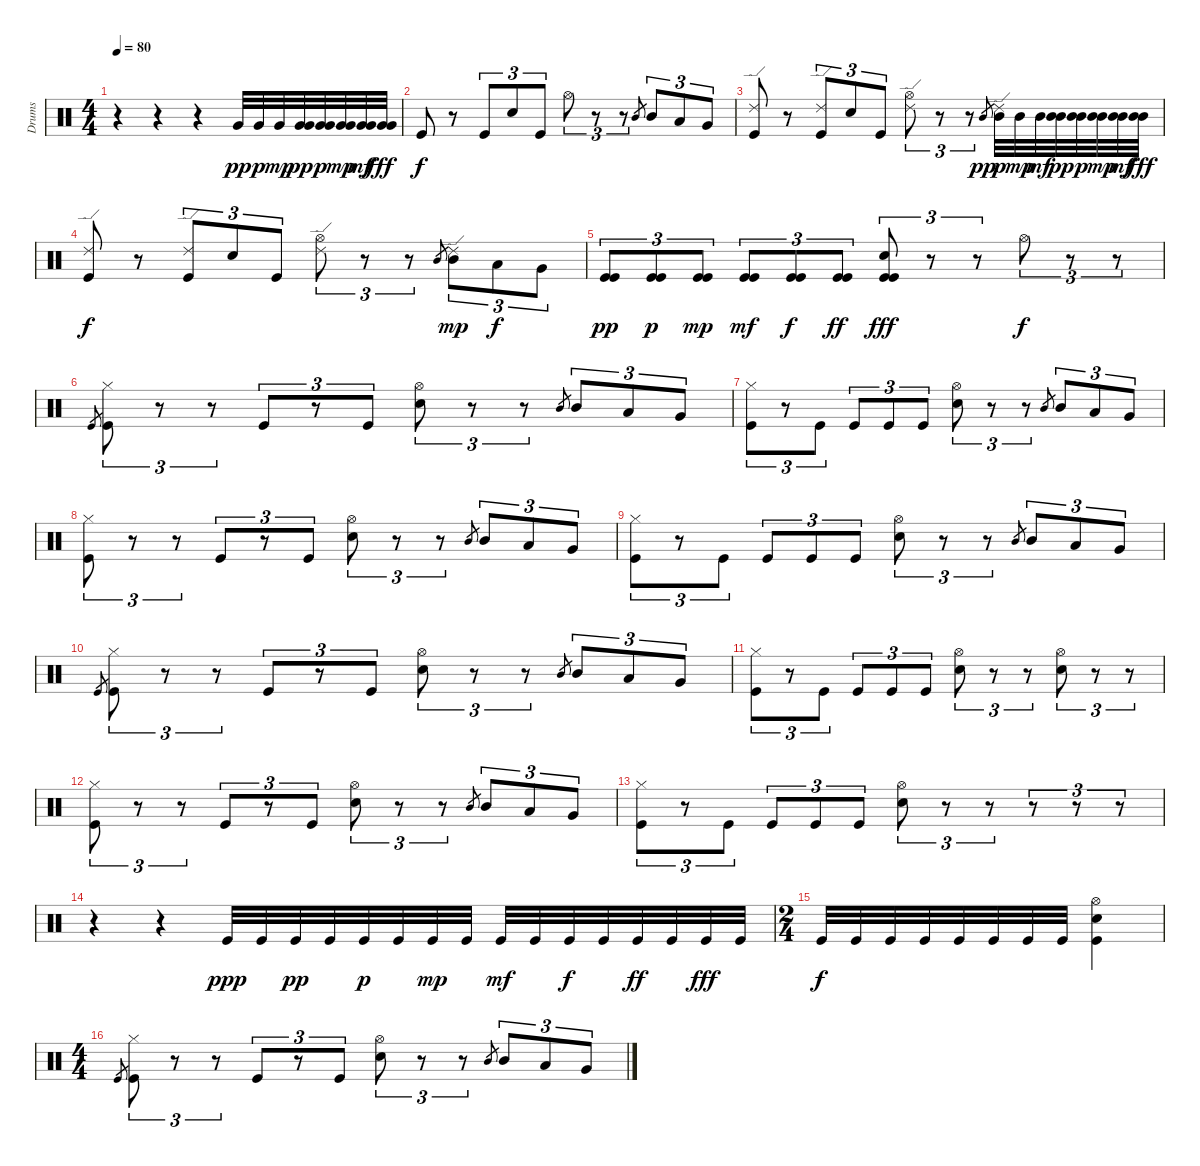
\track ("Drums" "Drums") {instrument percussion}
\staff {score}
\articulation defaults
\ts (4 4)
\tempo 80
\clef neutral
\ks c
r.4{dy pp} r.4 r.4 "Very Low Tom (hit)".32 "Very Low Tom (hit)".32{dy p} "Very Low Tom (hit)".32{dy mp} ("Very Low Tom (hit)" "Very Low Tom (hit)").32{dy pp} ("Very Low Tom (hit)" "Very Low Tom (hit)").32{dy p} ("Very Low Tom (hit)" "Very Low Tom (hit)").32{dy mp} ("Very Low Tom (hit)" "Very Low Tom (hit)").32{dy mf} ("Very Low Tom (hit)" "Very Low Tom (hit)").32{dy fff} |
"Kick (hit)".8{dy f} r.8 "Kick (hit)".8{tu (3 2)} "Snare (hit) 2".8{tu (3 2)} "Kick (hit)".8{tu (3 2)} "Hi-Hat (open)".8{tu (3 2)} r.8{tu (3 2)} r.8{tu (3 2)} "Mid Tom (hit)".8{gr} "Mid Tom (hit)".8{tu (3 2)} "Low Tom (hit)".8{tu (3 2)} "Very Low Tom (hit)".8{tu (3 2)} |
("Ride (edge) 2" "Kick (hit)").8 r.8 ("Ride (edge) 2" "Kick (hit)").8{tu (3 2)} "Snare (hit) 2".8{tu (3 2)} "Kick (hit)".8{tu (3 2)} ("Hi-Hat (open)" "Ride (edge) 2").8{tu (3 2)} r.8{tu (3 2)} r.8{tu (3 2)} "Mid Tom (hit)".8{gr dy pp} ("Ride (edge) 2" "Mid Tom (hit)").32{dy p} "Mid Tom (hit)".32{dy mp} "Mid Tom (hit)".32{dy mf} ("Mid Tom (hit)" "Mid Tom (hit)").32{dy pp} ("Mid Tom (hit)" "Mid Tom (hit)").32{dy p} ("Mid Tom (hit)" "Mid Tom (hit)").32{dy mp} ("Mid Tom (hit)" "Mid Tom (hit)").32{dy mf} ("Mid Tom (hit)" "Mid Tom (hit)").32{dy fff} |
("Ride (edge) 2" "Kick (hit)").8{dy f} r.8 ("Ride (edge) 2" "Kick (hit)").8{tu (3 2)} "Snare (hit) 2".8{tu (3 2)} "Kick (hit)".8{tu (3 2)} ("Hi-Hat (open)" "Ride (edge) 2").8{tu (3 2)} r.8{tu (3 2)} r.8{tu (3 2)} "Mid Tom (hit)".8{gr} ("Ride (edge) 2" "Mid Tom (hit)").8{tu (3 2) dy mp} "Low Tom (hit)".8{tu (3 2) dy f} "Very Low Tom (hit)".8{tu (3 2)} |
("Kick (hit)" "Kick (hit)").8{tu (3 2) dy pp} ("Kick (hit)" "Kick (hit)").8{tu (3 2) dy p} ("Kick (hit)" "Kick (hit)").8{tu (3 2) dy mp} ("Kick (hit)" "Kick (hit)").8{tu (3 2) dy mf} ("Kick (hit)" "Kick (hit)").8{tu (3 2) dy f} ("Kick (hit)" "Kick (hit)").8{tu (3 2) dy ff} ("Snare (hit) 2" "Kick (hit)" "Kick (hit)").8{tu (3 2) dy fff} r.8{tu (3 2)} r.8{tu (3 2)} "Hi-Hat (open)".8{tu (3 2) dy f} r.8{tu (3 2)} r.8{tu (3 2)} |
"Kick (hit)".8{gr} ("Hi-Hat (closed)" "Kick (hit)").8{tu (3 2)} r.8{tu (3 2)} r.8{tu (3 2)} "Kick (hit)".8{tu (3 2)} r.8{tu (3 2)} "Kick (hit)".8{tu (3 2)} ("Hi-Hat (open)" "Snare (hit) 2").8{tu (3 2)} r.8{tu (3 2)} r.8{tu (3 2)} "Mid Tom (hit)".8{gr} "Mid Tom (hit)".8{tu (3 2)} "Low Tom (hit)".8{tu (3 2)} "Very Low Tom (hit)".8{tu (3 2)} |
("Hi-Hat (closed)" "Kick (hit)").8{tu (3 2)} r.8{tu (3 2)} "Kick (hit)".8{tu (3 2)} "Kick (hit)".8{tu (3 2)} "Kick (hit)".8{tu (3 2)} "Kick (hit)".8{tu (3 2)} ("Hi-Hat (open)" "Snare (hit) 2").8{tu (3 2)} r.8{tu (3 2)} r.8{tu (3 2)} "Mid Tom (hit)".8{gr} "Mid Tom (hit)".8{tu (3 2)} "Low Tom (hit)".8{tu (3 2)} "Very Low Tom (hit)".8{tu (3 2)} |
("Hi-Hat (closed)" "Kick (hit)").8{tu (3 2)} r.8{tu (3 2)} r.8{tu (3 2)} "Kick (hit)".8{tu (3 2)} r.8{tu (3 2)} "Kick (hit)".8{tu (3 2)} ("Hi-Hat (open)" "Snare (hit) 2").8{tu (3 2)} r.8{tu (3 2)} r.8{tu (3 2)} "Mid Tom (hit)".8{gr} "Mid Tom (hit)".8{tu (3 2)} "Low Tom (hit)".8{tu (3 2)} "Very Low Tom (hit)".8{tu (3 2)} |
("Hi-Hat (closed)" "Kick (hit)").8{tu (3 2)} r.8{tu (3 2)} "Kick (hit)".8{tu (3 2)} "Kick (hit)".8{tu (3 2)} "Kick (hit)".8{tu (3 2)} "Kick (hit)".8{tu (3 2)} ("Hi-Hat (open)" "Snare (hit) 2").8{tu (3 2)} r.8{tu (3 2)} r.8{tu (3 2)} "Mid Tom (hit)".8{gr} "Mid Tom (hit)".8{tu (3 2)} "Low Tom (hit)".8{tu (3 2)} "Very Low Tom (hit)".8{tu (3 2)} |
"Kick (hit)".8{gr} ("Hi-Hat (closed)" "Kick (hit)").8{tu (3 2)} r.8{tu (3 2)} r.8{tu (3 2)} "Kick (hit)".8{tu (3 2)} r.8{tu (3 2)} "Kick (hit)".8{tu (3 2)} ("Hi-Hat (open)" "Snare (hit) 2").8{tu (3 2)} r.8{tu (3 2)} r.8{tu (3 2)} "Mid Tom (hit)".8{gr} "Mid Tom (hit)".8{tu (3 2)} "Low Tom (hit)".8{tu (3 2)} "Very Low Tom (hit)".8{tu (3 2)} |
("Hi-Hat (closed)" "Kick (hit)").8{tu (3 2)} r.8{tu (3 2)} "Kick (hit)".8{tu (3 2)} "Kick (hit)".8{tu (3 2)} "Kick (hit)".8{tu (3 2)} "Kick (hit)".8{tu (3 2)} ("Hi-Hat (open)" "Snare (hit) 2").8{tu (3 2)} r.8{tu (3 2)} r.8{tu (3 2)} ("Hi-Hat (open)" "Snare (hit) 2").8{tu (3 2)} r.8{tu (3 2)} r.8{tu (3 2)} |
("Hi-Hat (closed)" "Kick (hit)").8{tu (3 2)} r.8{tu (3 2)} r.8{tu (3 2)} "Kick (hit)".8{tu (3 2)} r.8{tu (3 2)} "Kick (hit)".8{tu (3 2)} ("Hi-Hat (open)" "Snare (hit) 2").8{tu (3 2)} r.8{tu (3 2)} r.8{tu (3 2)} "Mid Tom (hit)".8{gr} "Mid Tom (hit)".8{tu (3 2)} "Low Tom (hit)".8{tu (3 2)} "Very Low Tom (hit)".8{tu (3 2)} |
("Hi-Hat (closed)" "Kick (hit)").8{tu (3 2)} r.8{tu (3 2)} "Kick (hit)".8{tu (3 2)} "Kick (hit)".8{tu (3 2)} "Kick (hit)".8{tu (3 2)} "Kick (hit)".8{tu (3 2)} ("Hi-Hat (open)" "Snare (hit) 2").8{tu (3 2)} r.8{tu (3 2)} r.8{tu (3 2)} r.8{tu (3 2)} r.8{tu (3 2)} r.8{tu (3 2)} |
r.4 r.4 "Kick (hit)".32{dy ppp} "Kick (hit)".32 "Kick (hit)".32{dy pp} "Kick (hit)".32 "Kick (hit)".32{dy p} "Kick (hit)".32 "Kick (hit)".32{dy mp} "Kick (hit)".32 "Kick (hit)".32{dy mf} "Kick (hit)".32 "Kick (hit)".32{dy f} "Kick (hit)".32 "Kick (hit)".32{dy ff} "Kick (hit)".32 "Kick (hit)".32{dy fff} "Kick (hit)".32 |
\ts (2 4)
"Kick (hit)".32{dy f} "Kick (hit)".32 "Kick (hit)".32 "Kick (hit)".32 "Kick (hit)".32 "Kick (hit)".32 "Kick (hit)".32 "Kick (hit)".32 ("Hi-Hat (open)" "Snare (hit) 2" "Kick (hit)").4 |
\ts (4 4)
"Kick (hit)".8{gr} ("Hi-Hat (closed)" "Kick (hit)").8{tu (3 2)} r.8{tu (3 2)} r.8{tu (3 2)} "Kick (hit)".8{tu (3 2)} r.8{tu (3 2)} "Kick (hit)".8{tu (3 2)} ("Hi-Hat (open)" "Snare (hit) 2").8{tu (3 2)} r.8{tu (3 2)} r.8{tu (3 2)} "Mid Tom (hit)".8{gr} "Mid Tom (hit)".8{tu (3 2)} "Low Tom (hit)".8{tu (3 2)} "Very Low Tom (hit)".8{tu (3 2)}
